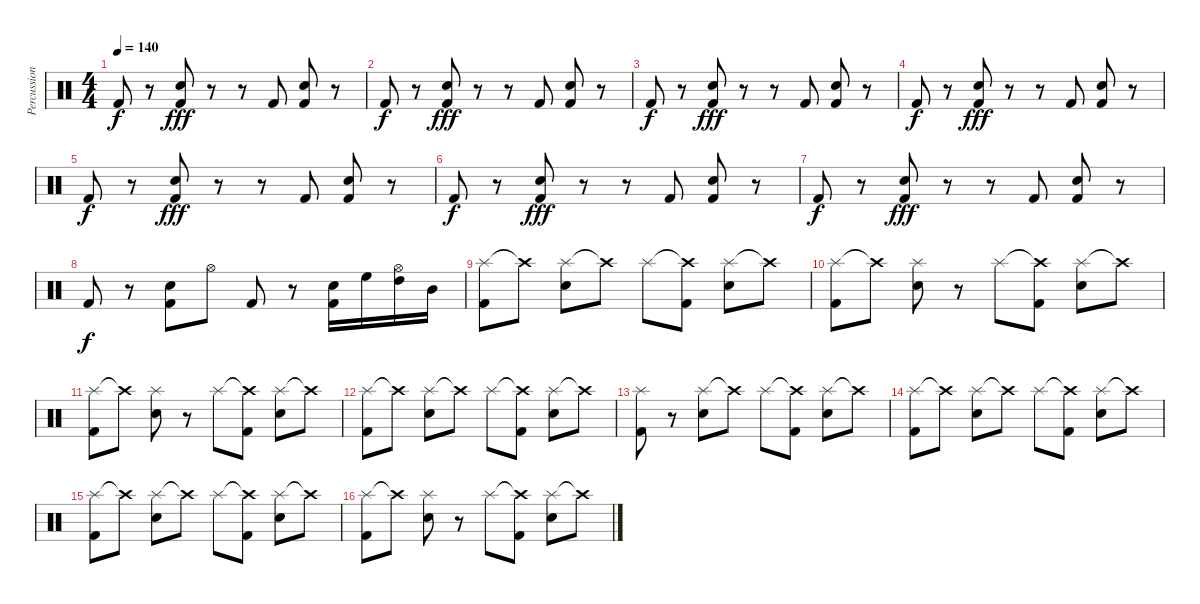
\track ("Percussion" "Percussion") {instrument percussion}
\staff {score}
\articulation defaults
\ts (4 4)
\tempo 140
\clef neutral
\ks c "Kick (hit) 2".8{dy f}
r.8 ("Snare (hit) 2" "Kick (hit) 2").8{dy fff} r.8 r.8 "Kick (hit) 2".8 ("Snare (hit) 2" "Kick (hit) 2").8 r.8 |
"Kick (hit) 2".8{dy f} r.8 ("Snare (hit) 2" "Kick (hit) 2").8{dy fff} r.8 r.8 "Kick (hit) 2".8 ("Snare (hit) 2" "Kick (hit) 2").8 r.8 |
"Kick (hit) 2".8{dy f} r.8 ("Snare (hit) 2" "Kick (hit) 2").8{dy fff} r.8 r.8 "Kick (hit) 2".8 ("Snare (hit) 2" "Kick (hit) 2").8 r.8 |
"Kick (hit) 2".8{dy f} r.8 ("Snare (hit) 2" "Kick (hit) 2").8{dy fff} r.8 r.8 "Kick (hit) 2".8 ("Snare (hit) 2" "Kick (hit) 2").8 r.8 |
"Kick (hit) 2".8{dy f} r.8 ("Snare (hit) 2" "Kick (hit) 2").8{dy fff} r.8 r.8 "Kick (hit) 2".8 ("Snare (hit) 2" "Kick (hit) 2").8 r.8 |
"Kick (hit) 2".8{dy f} r.8 ("Snare (hit) 2" "Kick (hit) 2").8{dy fff} r.8 r.8 "Kick (hit) 2".8 ("Snare (hit) 2" "Kick (hit) 2").8 r.8 |
"Kick (hit) 2".8{dy f} r.8 ("Snare (hit) 2" "Kick (hit) 2").8{dy fff} r.8 r.8 "Kick (hit) 2".8 ("Snare (hit) 2" "Kick (hit) 2").8 r.8 |
"Kick (hit) 2".8{dy f} r.8 ("Snare (hit) 2" "Kick (hit) 2").8 "Hi-Hat (open)".8 "Kick (hit) 2".8 r.8 ("Snare (hit) 2" "Kick (hit) 2").16 "High Floor Tom (hit)".16 ("Hi-Hat (open)" "High Tom (hit)").16 "Mid Tom (hit)".16 |
("Splash (hit)" "Kick (hit) 2").8 "Crash high (hit)"{t}.8 ("Splash (hit)" "Snare (hit) 2").8 "Crash high (hit)"{t}.8 "Splash (hit)".8 ("Crash high (hit)"{t} "Kick (hit) 2").8 ("Splash (hit)" "Snare (hit) 2").8 "Crash high (hit)"{t}.8 |
("Splash (hit)" "Kick (hit) 2").8 "Crash high (hit)"{t}.8 ("Splash (hit)" "Snare (hit) 2").8 r.8 "Splash (hit)".8 ("Crash high (hit)"{t} "Kick (hit) 2").8 ("Splash (hit)" "Snare (hit) 2").8 "Crash high (hit)"{t}.8 |
("Splash (hit)" "Kick (hit) 2").8 "Crash high (hit)"{t}.8 ("Splash (hit)" "Snare (hit) 2").8 r.8 "Splash (hit)".8 ("Crash high (hit)"{t} "Kick (hit) 2").8 ("Splash (hit)" "Snare (hit) 2").8 "Crash high (hit)"{t}.8 |
("Splash (hit)" "Kick (hit) 2").8 "Crash high (hit)"{t}.8 ("Splash (hit)" "Snare (hit) 2").8 "Crash high (hit)"{t}.8 "Splash (hit)".8 ("Crash high (hit)"{t} "Kick (hit) 2").8 ("Splash (hit)" "Snare (hit) 2").8 "Crash high (hit)"{t}.8 |
("Splash (hit)" "Kick (hit) 2").8 r.8 ("Splash (hit)" "Snare (hit) 2").8 "Crash high (hit)"{t}.8 "Splash (hit)".8 ("Crash high (hit)"{t} "Kick (hit) 2").8 ("Splash (hit)" "Snare (hit) 2").8 "Crash high (hit)"{t}.8 |
("Splash (hit)" "Kick (hit) 2").8 "Crash high (hit)"{t}.8 ("Splash (hit)" "Snare (hit) 2").8 "Crash high (hit)"{t}.8 "Splash (hit)".8 ("Crash high (hit)"{t} "Kick (hit) 2").8 ("Splash (hit)" "Snare (hit) 2").8 "Crash high (hit)"{t}.8 |
("Splash (hit)" "Kick (hit) 2").8 "Crash high (hit)"{t}.8 ("Splash (hit)" "Snare (hit) 2").8 "Crash high (hit)"{t}.8 "Splash (hit)".8 ("Crash high (hit)"{t} "Kick (hit) 2").8 ("Splash (hit)" "Snare (hit) 2").8 "Crash high (hit)"{t}.8 |
("Splash (hit)" "Kick (hit) 2").8 "Crash high (hit)"{t}.8 ("Splash (hit)" "Snare (hit) 2").8 r.8 "Splash (hit)".8 ("Crash high (hit)"{t} "Kick (hit) 2").8 ("Splash (hit)" "Snare (hit) 2").8 "Crash high (hit)"{t}.8
